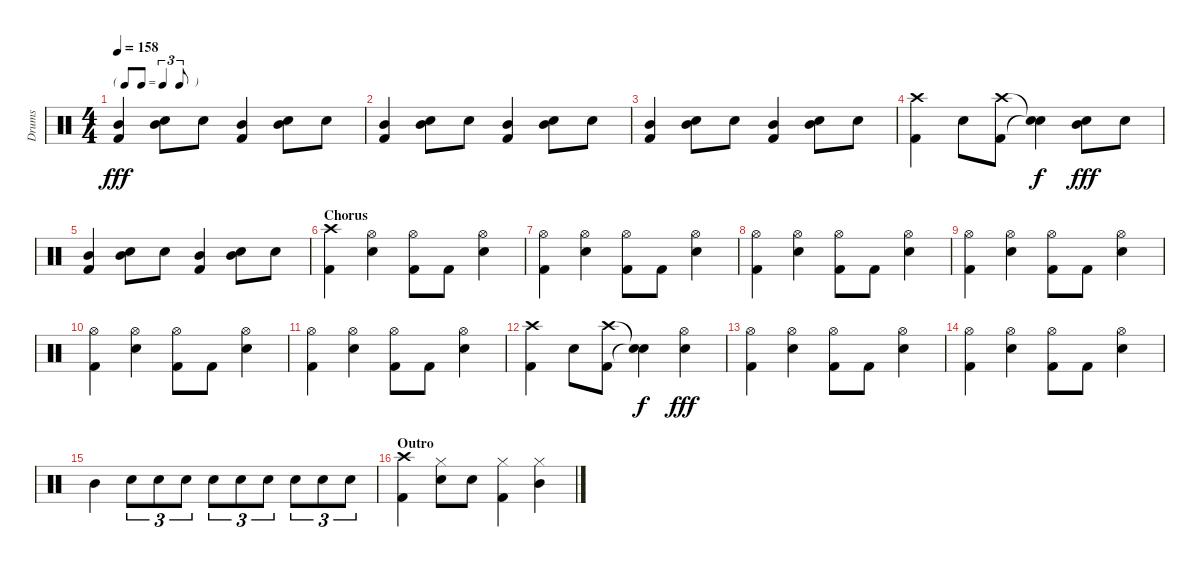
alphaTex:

\track ("Drums" "Drums") {instrument percussion}
\staff {score}
\articulation defaults
\ts (4 4)
\tf triplet8th
\tempo 158
\clef neutral
\ks c
("Mid Tom (hit)" "Kick (hit) 2").4{dy fff} ("Mid Tom (hit)" "Snare (hit) 2").8 "Snare (hit) 2".8 ("Mid Tom (hit)" "Kick (hit) 2").4 ("Mid Tom (hit)" "Snare (hit) 2").8 "Snare (hit) 2".8 |
("Mid Tom (hit)" "Kick (hit) 2").4 ("Mid Tom (hit)" "Snare (hit) 2").8 "Snare (hit) 2".8 ("Mid Tom (hit)" "Kick (hit) 2").4 ("Mid Tom (hit)" "Snare (hit) 2").8 "Snare (hit) 2".8 |
("Mid Tom (hit)" "Kick (hit) 2").4 ("Mid Tom (hit)" "Snare (hit) 2").8 "Snare (hit) 2".8 ("Mid Tom (hit)" "Kick (hit) 2").4 ("Mid Tom (hit)" "Snare (hit) 2").8 "Snare (hit) 2".8 |
("Crash high (hit)" "Kick (hit) 2").4 "Snare (hit) 2".8 ("Crash high (hit)" "Kick (hit) 2").8 ("Snare (hit)"{t} "Snare (hit)"{t}).4{dy f} ("Mid Tom (hit)" "Snare (hit) 2").8{dy fff} "Snare (hit) 2".8 |
("Mid Tom (hit)" "Kick (hit) 2").4 ("Mid Tom (hit)" "Snare (hit) 2").8 "Snare (hit) 2".8 ("Mid Tom (hit)" "Kick (hit) 2").4 ("Mid Tom (hit)" "Snare (hit) 2").8 "Snare (hit) 2".8 |
\section ("" "Chorus")
("Crash high (hit)" "Kick (hit) 2").4 ("Hi-Hat (open)" "Snare (hit) 2").4 ("Hi-Hat (open)" "Kick (hit) 2").8 "Kick (hit) 2".8 ("Hi-Hat (open)" "Snare (hit) 2").4 |
("Hi-Hat (open)" "Kick (hit) 2").4 ("Hi-Hat (open)" "Snare (hit) 2").4 ("Hi-Hat (open)" "Kick (hit) 2").8 "Kick (hit) 2".8 ("Hi-Hat (open)" "Snare (hit) 2").4 |
("Hi-Hat (open)" "Kick (hit) 2").4 ("Hi-Hat (open)" "Snare (hit) 2").4 ("Hi-Hat (open)" "Kick (hit) 2").8 "Kick (hit) 2".8 ("Hi-Hat (open)" "Snare (hit) 2").4 |
("Hi-Hat (open)" "Kick (hit) 2").4 ("Hi-Hat (open)" "Snare (hit) 2").4 ("Hi-Hat (open)" "Kick (hit) 2").8 "Kick (hit) 2".8 ("Hi-Hat (open)" "Snare (hit) 2").4 |
("Hi-Hat (open)" "Kick (hit) 2").4 ("Hi-Hat (open)" "Snare (hit) 2").4 ("Hi-Hat (open)" "Kick (hit) 2").8 "Kick (hit) 2".8 ("Hi-Hat (open)" "Snare (hit) 2").4 |
("Hi-Hat (open)" "Kick (hit) 2").4 ("Hi-Hat (open)" "Snare (hit) 2").4 ("Hi-Hat (open)" "Kick (hit) 2").8 "Kick (hit) 2".8 ("Hi-Hat (open)" "Snare (hit) 2").4 |
("Crash high (hit)" "Kick (hit) 2").4 "Snare (hit) 2".8 ("Crash high (hit)" "Kick (hit) 2").8 ("Snare (hit)"{t} "Snare (hit)"{t}).4{dy f} ("Hi-Hat (open)" "Snare (hit) 2").4{dy fff} |
("Hi-Hat (open)" "Kick (hit) 2").4 ("Hi-Hat (open)" "Snare (hit) 2").4 ("Hi-Hat (open)" "Kick (hit) 2").8 "Kick (hit) 2".8 ("Hi-Hat (open)" "Snare (hit) 2").4 |
("Hi-Hat (open)" "Kick (hit) 2").4 ("Hi-Hat (open)" "Snare (hit) 2").4 ("Hi-Hat (open)" "Kick (hit) 2").8 "Kick (hit) 2".8 ("Hi-Hat (open)" "Snare (hit) 2").4 |
"Mid Tom (hit)".4 "Snare (hit) 2".8{tu (3 2)} "Snare (hit) 2".8{tu (3 2)} "Snare (hit) 2".8{tu (3 2)} "Snare (hit) 2".8{tu (3 2)} "Snare (hit) 2".8{tu (3 2)} "Snare (hit) 2".8{tu (3 2)} "Snare (hit) 2".8{tu (3 2)} "Snare (hit) 2".8{tu (3 2)} "Snare (hit) 2".8{tu (3 2)} |
\section ("" "Outro")
("Crash high (hit)" "Kick (hit) 2").4 ("Hi-Hat (closed)" "Snare (hit) 2").8 "Snare (hit) 2".8 ("Hi-Hat (closed)" "Kick (hit) 2").4 ("Hi-Hat (closed)" "Mid Tom (hit)").4
